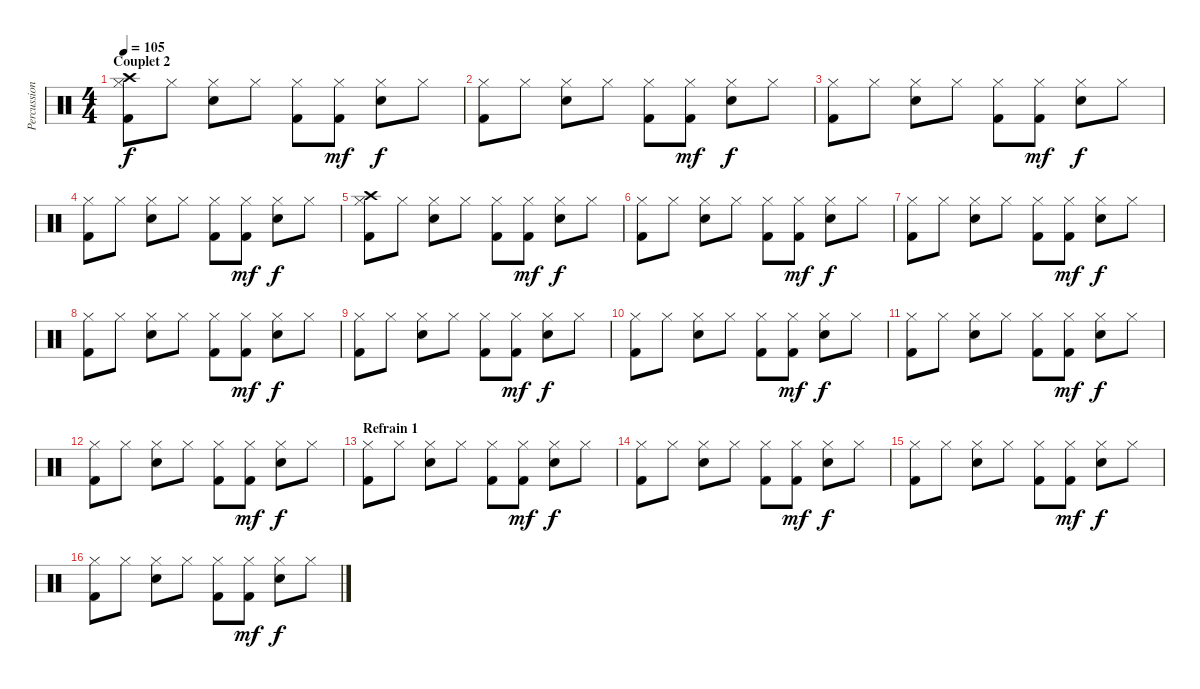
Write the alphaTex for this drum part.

\track ("Percussions" "Percussion") {instrument percussion}
\staff {score}
\articulation defaults
\ts (4 4)
\section ("" "Couplet 2")
\tempo 105
\clef neutral
\ks c
("Hi-Hat (closed)" "Crash high (hit)" "Kick (hit) 2").8{dy f} "Hi-Hat (closed)".8 ("Hi-Hat (closed)" "Electric Snare (hit)").8 "Hi-Hat (closed)".8 ("Hi-Hat (closed)" "Kick (hit) 2").8 ("Hi-Hat (closed)" "Kick (hit) 2").8{dy mf} ("Hi-Hat (closed)" "Electric Snare (hit)").8{dy f} "Hi-Hat (closed)".8 |
("Hi-Hat (closed)" "Kick (hit) 2").8 "Hi-Hat (closed)".8 ("Hi-Hat (closed)" "Electric Snare (hit)").8 "Hi-Hat (closed)".8 ("Hi-Hat (closed)" "Kick (hit) 2").8 ("Hi-Hat (closed)" "Kick (hit) 2").8{dy mf} ("Hi-Hat (closed)" "Electric Snare (hit)").8{dy f} "Hi-Hat (closed)".8 |
("Hi-Hat (closed)" "Kick (hit) 2").8 "Hi-Hat (closed)".8 ("Hi-Hat (closed)" "Electric Snare (hit)").8 "Hi-Hat (closed)".8 ("Hi-Hat (closed)" "Kick (hit) 2").8 ("Hi-Hat (closed)" "Kick (hit) 2").8{dy mf} ("Hi-Hat (closed)" "Electric Snare (hit)").8{dy f} "Hi-Hat (closed)".8 |
("Hi-Hat (closed)" "Kick (hit) 2").8 "Hi-Hat (closed)".8 ("Hi-Hat (closed)" "Electric Snare (hit)").8 "Hi-Hat (closed)".8 ("Hi-Hat (closed)" "Kick (hit) 2").8 ("Hi-Hat (closed)" "Kick (hit) 2").8{dy mf} ("Hi-Hat (closed)" "Electric Snare (hit)").8{dy f} "Hi-Hat (closed)".8 |
("Hi-Hat (closed)" "Crash high (hit)" "Kick (hit) 2").8 "Hi-Hat (closed)".8 ("Hi-Hat (closed)" "Electric Snare (hit)").8 "Hi-Hat (closed)".8 ("Hi-Hat (closed)" "Kick (hit) 2").8 ("Hi-Hat (closed)" "Kick (hit) 2").8{dy mf} ("Hi-Hat (closed)" "Electric Snare (hit)").8{dy f} "Hi-Hat (closed)".8 |
("Hi-Hat (closed)" "Kick (hit) 2").8 "Hi-Hat (closed)".8 ("Hi-Hat (closed)" "Electric Snare (hit)").8 "Hi-Hat (closed)".8 ("Hi-Hat (closed)" "Kick (hit) 2").8 ("Hi-Hat (closed)" "Kick (hit) 2").8{dy mf} ("Hi-Hat (closed)" "Electric Snare (hit)").8{dy f} "Hi-Hat (closed)".8 |
("Hi-Hat (closed)" "Kick (hit) 2").8 "Hi-Hat (closed)".8 ("Hi-Hat (closed)" "Electric Snare (hit)").8 "Hi-Hat (closed)".8 ("Hi-Hat (closed)" "Kick (hit) 2").8 ("Hi-Hat (closed)" "Kick (hit) 2").8{dy mf} ("Hi-Hat (closed)" "Electric Snare (hit)").8{dy f} "Hi-Hat (closed)".8 |
("Hi-Hat (closed)" "Kick (hit) 2").8 "Hi-Hat (closed)".8 ("Hi-Hat (closed)" "Electric Snare (hit)").8 "Hi-Hat (closed)".8 ("Hi-Hat (closed)" "Kick (hit) 2").8 ("Hi-Hat (closed)" "Kick (hit) 2").8{dy mf} ("Hi-Hat (closed)" "Electric Snare (hit)").8{dy f} "Hi-Hat (closed)".8 |
("Hi-Hat (closed)" "Kick (hit) 2").8 "Hi-Hat (closed)".8 ("Hi-Hat (closed)" "Electric Snare (hit)").8 "Hi-Hat (closed)".8 ("Hi-Hat (closed)" "Kick (hit) 2").8 ("Hi-Hat (closed)" "Kick (hit) 2").8{dy mf} ("Hi-Hat (closed)" "Electric Snare (hit)").8{dy f} "Hi-Hat (closed)".8 |
("Hi-Hat (closed)" "Kick (hit) 2").8 "Hi-Hat (closed)".8 ("Hi-Hat (closed)" "Electric Snare (hit)").8 "Hi-Hat (closed)".8 ("Hi-Hat (closed)" "Kick (hit) 2").8 ("Hi-Hat (closed)" "Kick (hit) 2").8{dy mf} ("Hi-Hat (closed)" "Electric Snare (hit)").8{dy f} "Hi-Hat (closed)".8 |
("Hi-Hat (closed)" "Kick (hit) 2").8 "Hi-Hat (closed)".8 ("Hi-Hat (closed)" "Electric Snare (hit)").8 "Hi-Hat (closed)".8 ("Hi-Hat (closed)" "Kick (hit) 2").8 ("Hi-Hat (closed)" "Kick (hit) 2").8{dy mf} ("Hi-Hat (closed)" "Electric Snare (hit)").8{dy f} "Hi-Hat (closed)".8 |
("Hi-Hat (closed)" "Kick (hit) 2").8 "Hi-Hat (closed)".8 ("Hi-Hat (closed)" "Electric Snare (hit)").8 "Hi-Hat (closed)".8 ("Hi-Hat (closed)" "Kick (hit) 2").8 ("Hi-Hat (closed)" "Kick (hit) 2").8{dy mf} ("Hi-Hat (closed)" "Electric Snare (hit)").8{dy f} "Hi-Hat (closed)".8 |
\section ("" "Refrain 1")
("Hi-Hat (closed)" "Kick (hit) 2").8 "Hi-Hat (closed)".8 ("Hi-Hat (closed)" "Electric Snare (hit)").8 "Hi-Hat (closed)".8 ("Hi-Hat (closed)" "Kick (hit) 2").8 ("Hi-Hat (closed)" "Kick (hit) 2").8{dy mf} ("Hi-Hat (closed)" "Electric Snare (hit)").8{dy f} "Hi-Hat (closed)".8 |
("Hi-Hat (closed)" "Kick (hit) 2").8 "Hi-Hat (closed)".8 ("Hi-Hat (closed)" "Electric Snare (hit)").8 "Hi-Hat (closed)".8 ("Hi-Hat (closed)" "Kick (hit) 2").8 ("Hi-Hat (closed)" "Kick (hit) 2").8{dy mf} ("Hi-Hat (closed)" "Electric Snare (hit)").8{dy f} "Hi-Hat (closed)".8 |
("Hi-Hat (closed)" "Kick (hit) 2").8 "Hi-Hat (closed)".8 ("Hi-Hat (closed)" "Electric Snare (hit)").8 "Hi-Hat (closed)".8 ("Hi-Hat (closed)" "Kick (hit) 2").8 ("Hi-Hat (closed)" "Kick (hit) 2").8{dy mf} ("Hi-Hat (closed)" "Electric Snare (hit)").8{dy f} "Hi-Hat (closed)".8 |
("Hi-Hat (closed)" "Kick (hit) 2").8 "Hi-Hat (closed)".8 ("Hi-Hat (closed)" "Electric Snare (hit)").8 "Hi-Hat (closed)".8 ("Hi-Hat (closed)" "Kick (hit) 2").8 ("Hi-Hat (closed)" "Kick (hit) 2").8{dy mf} ("Hi-Hat (closed)" "Electric Snare (hit)").8{dy f} "Hi-Hat (closed)".8
